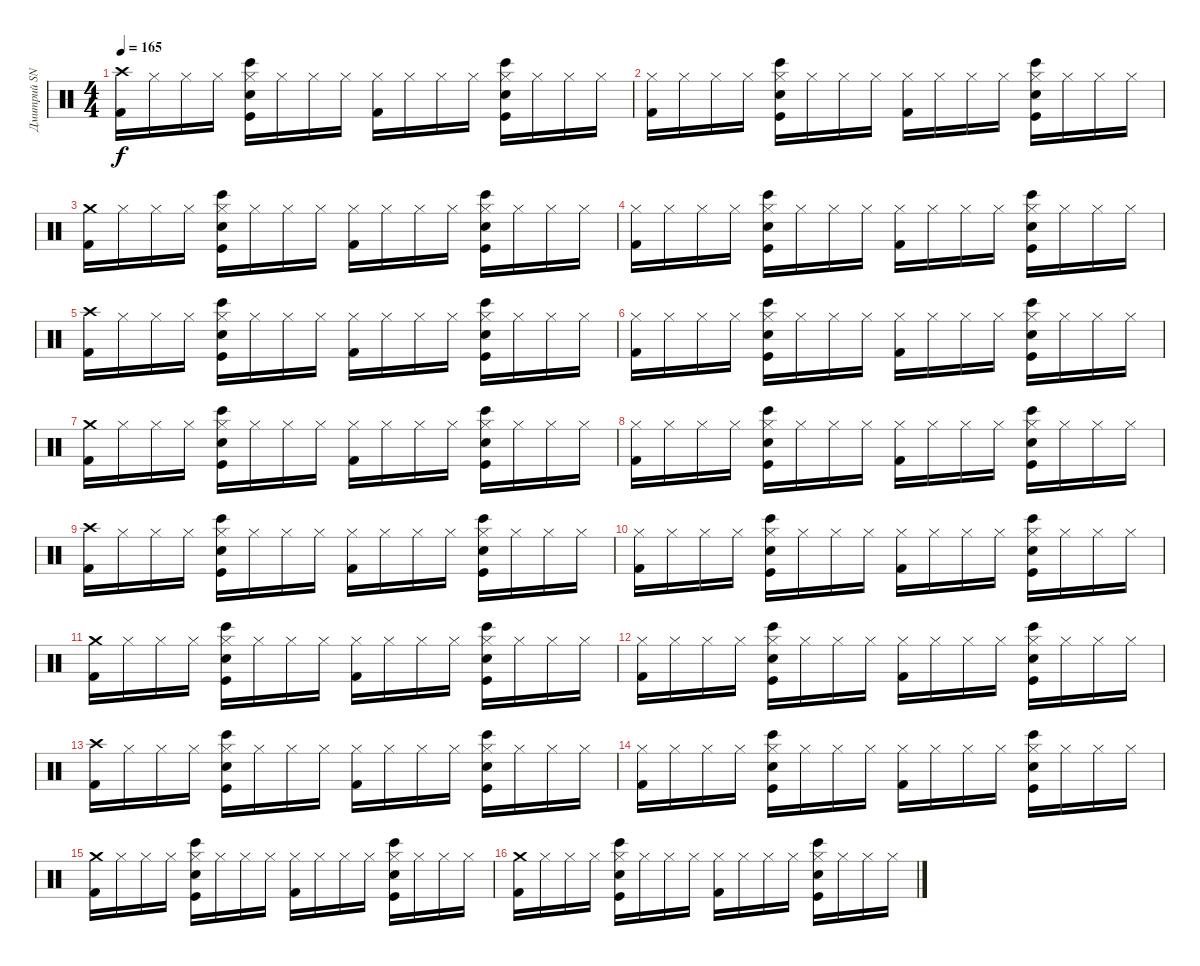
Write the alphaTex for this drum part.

\track ("Дмитрий SNAKE Хакимов" "Дмитрий SN") {instrument percussion}
\staff {score}
\articulation defaults
\ts (4 4)
\tempo 165
\clef neutral
\ks c
("Crash high (hit)" "Kick (hit) 2").16{dy f} "Hi-Hat (closed)".16 "Hi-Hat (closed)".16 "Hi-Hat (closed)".16 ("Hi-Hat (closed)" "Electric Snare (hit)" "Bongo High (hit)" "Kick (hit)").16 "Hi-Hat (closed)".16 "Hi-Hat (closed)".16 "Hi-Hat (closed)".16 ("Hi-Hat (closed)" "Kick (hit) 2").16 "Hi-Hat (closed)".16 "Hi-Hat (closed)".16 "Hi-Hat (closed)".16 ("Hi-Hat (closed)" "Electric Snare (hit)" "Bongo High (hit)" "Kick (hit)").16 "Hi-Hat (closed)".16 "Hi-Hat (closed)".16 "Hi-Hat (closed)".16 |
("Hi-Hat (closed)" "Kick (hit) 2").16 "Hi-Hat (closed)".16 "Hi-Hat (closed)".16 "Hi-Hat (closed)".16 ("Hi-Hat (closed)" "Electric Snare (hit)" "Bongo High (hit)" "Kick (hit)").16 "Hi-Hat (closed)".16 "Hi-Hat (closed)".16 "Hi-Hat (closed)".16 ("Hi-Hat (closed)" "Kick (hit) 2").16 "Hi-Hat (closed)".16 "Hi-Hat (closed)".16 "Hi-Hat (closed)".16 ("Hi-Hat (closed)" "Electric Snare (hit)" "Bongo High (hit)" "Kick (hit)").16 "Hi-Hat (closed)".16 "Hi-Hat (closed)".16 "Hi-Hat (closed)".16 |
("Crash medium (hit)" "Kick (hit) 2").16 "Hi-Hat (closed)".16 "Hi-Hat (closed)".16 "Hi-Hat (closed)".16 ("Hi-Hat (closed)" "Electric Snare (hit)" "Bongo High (hit)" "Kick (hit)").16 "Hi-Hat (closed)".16 "Hi-Hat (closed)".16 "Hi-Hat (closed)".16 ("Hi-Hat (closed)" "Kick (hit) 2").16 "Hi-Hat (closed)".16 "Hi-Hat (closed)".16 "Hi-Hat (closed)".16 ("Hi-Hat (closed)" "Electric Snare (hit)" "Bongo High (hit)" "Kick (hit)").16 "Hi-Hat (closed)".16 "Hi-Hat (closed)".16 "Hi-Hat (closed)".16 |
("Hi-Hat (closed)" "Kick (hit) 2").16 "Hi-Hat (closed)".16 "Hi-Hat (closed)".16 "Hi-Hat (closed)".16 ("Hi-Hat (closed)" "Electric Snare (hit)" "Bongo High (hit)" "Kick (hit)").16 "Hi-Hat (closed)".16 "Hi-Hat (closed)".16 "Hi-Hat (closed)".16 ("Hi-Hat (closed)" "Kick (hit) 2").16 "Hi-Hat (closed)".16 "Hi-Hat (closed)".16 "Hi-Hat (closed)".16 ("Hi-Hat (closed)" "Electric Snare (hit)" "Bongo High (hit)" "Kick (hit)").16 "Hi-Hat (closed)".16 "Hi-Hat (closed)".16 "Hi-Hat (closed)".16 |
("Crash high (hit)" "Kick (hit) 2").16 "Hi-Hat (closed)".16 "Hi-Hat (closed)".16 "Hi-Hat (closed)".16 ("Hi-Hat (closed)" "Electric Snare (hit)" "Bongo High (hit)" "Kick (hit)").16 "Hi-Hat (closed)".16 "Hi-Hat (closed)".16 "Hi-Hat (closed)".16 ("Hi-Hat (closed)" "Kick (hit) 2").16 "Hi-Hat (closed)".16 "Hi-Hat (closed)".16 "Hi-Hat (closed)".16 ("Hi-Hat (closed)" "Electric Snare (hit)" "Bongo High (hit)" "Kick (hit)").16 "Hi-Hat (closed)".16 "Hi-Hat (closed)".16 "Hi-Hat (closed)".16 |
("Hi-Hat (closed)" "Kick (hit) 2").16 "Hi-Hat (closed)".16 "Hi-Hat (closed)".16 "Hi-Hat (closed)".16 ("Hi-Hat (closed)" "Electric Snare (hit)" "Bongo High (hit)" "Kick (hit)").16 "Hi-Hat (closed)".16 "Hi-Hat (closed)".16 "Hi-Hat (closed)".16 ("Hi-Hat (closed)" "Kick (hit) 2").16 "Hi-Hat (closed)".16 "Hi-Hat (closed)".16 "Hi-Hat (closed)".16 ("Hi-Hat (closed)" "Electric Snare (hit)" "Bongo High (hit)" "Kick (hit)").16 "Hi-Hat (closed)".16 "Hi-Hat (closed)".16 "Hi-Hat (closed)".16 |
("Crash medium (hit)" "Kick (hit) 2").16 "Hi-Hat (closed)".16 "Hi-Hat (closed)".16 "Hi-Hat (closed)".16 ("Hi-Hat (closed)" "Electric Snare (hit)" "Bongo High (hit)" "Kick (hit)").16 "Hi-Hat (closed)".16 "Hi-Hat (closed)".16 "Hi-Hat (closed)".16 ("Hi-Hat (closed)" "Kick (hit) 2").16 "Hi-Hat (closed)".16 "Hi-Hat (closed)".16 "Hi-Hat (closed)".16 ("Hi-Hat (closed)" "Electric Snare (hit)" "Bongo High (hit)" "Kick (hit)").16 "Hi-Hat (closed)".16 "Hi-Hat (closed)".16 "Hi-Hat (closed)".16 |
("Hi-Hat (closed)" "Kick (hit) 2").16 "Hi-Hat (closed)".16 "Hi-Hat (closed)".16 "Hi-Hat (closed)".16 ("Hi-Hat (closed)" "Electric Snare (hit)" "Bongo High (hit)" "Kick (hit)").16 "Hi-Hat (closed)".16 "Hi-Hat (closed)".16 "Hi-Hat (closed)".16 ("Hi-Hat (closed)" "Kick (hit) 2").16 "Hi-Hat (closed)".16 "Hi-Hat (closed)".16 "Hi-Hat (closed)".16 ("Hi-Hat (closed)" "Electric Snare (hit)" "Bongo High (hit)" "Kick (hit)").16 "Hi-Hat (closed)".16 "Hi-Hat (closed)".16 "Hi-Hat (closed)".16 |
("Crash high (hit)" "Kick (hit) 2").16 "Hi-Hat (closed)".16 "Hi-Hat (closed)".16 "Hi-Hat (closed)".16 ("Hi-Hat (closed)" "Electric Snare (hit)" "Bongo High (hit)" "Kick (hit)").16 "Hi-Hat (closed)".16 "Hi-Hat (closed)".16 "Hi-Hat (closed)".16 ("Hi-Hat (closed)" "Kick (hit) 2").16 "Hi-Hat (closed)".16 "Hi-Hat (closed)".16 "Hi-Hat (closed)".16 ("Hi-Hat (closed)" "Electric Snare (hit)" "Bongo High (hit)" "Kick (hit)").16 "Hi-Hat (closed)".16 "Hi-Hat (closed)".16 "Hi-Hat (closed)".16 |
("Hi-Hat (closed)" "Kick (hit) 2").16 "Hi-Hat (closed)".16 "Hi-Hat (closed)".16 "Hi-Hat (closed)".16 ("Hi-Hat (closed)" "Electric Snare (hit)" "Bongo High (hit)" "Kick (hit)").16 "Hi-Hat (closed)".16 "Hi-Hat (closed)".16 "Hi-Hat (closed)".16 ("Hi-Hat (closed)" "Kick (hit) 2").16 "Hi-Hat (closed)".16 "Hi-Hat (closed)".16 "Hi-Hat (closed)".16 ("Hi-Hat (closed)" "Electric Snare (hit)" "Bongo High (hit)" "Kick (hit)").16 "Hi-Hat (closed)".16 "Hi-Hat (closed)".16 "Hi-Hat (closed)".16 |
("Crash medium (hit)" "Kick (hit) 2").16 "Hi-Hat (closed)".16 "Hi-Hat (closed)".16 "Hi-Hat (closed)".16 ("Hi-Hat (closed)" "Electric Snare (hit)" "Bongo High (hit)" "Kick (hit)").16 "Hi-Hat (closed)".16 "Hi-Hat (closed)".16 "Hi-Hat (closed)".16 ("Hi-Hat (closed)" "Kick (hit) 2").16 "Hi-Hat (closed)".16 "Hi-Hat (closed)".16 "Hi-Hat (closed)".16 ("Hi-Hat (closed)" "Electric Snare (hit)" "Bongo High (hit)" "Kick (hit)").16 "Hi-Hat (closed)".16 "Hi-Hat (closed)".16 "Hi-Hat (closed)".16 |
("Hi-Hat (closed)" "Kick (hit) 2").16 "Hi-Hat (closed)".16 "Hi-Hat (closed)".16 "Hi-Hat (closed)".16 ("Hi-Hat (closed)" "Electric Snare (hit)" "Bongo High (hit)" "Kick (hit)").16 "Hi-Hat (closed)".16 "Hi-Hat (closed)".16 "Hi-Hat (closed)".16 ("Hi-Hat (closed)" "Kick (hit) 2").16 "Hi-Hat (closed)".16 "Hi-Hat (closed)".16 "Hi-Hat (closed)".16 ("Hi-Hat (closed)" "Electric Snare (hit)" "Bongo High (hit)" "Kick (hit)").16 "Hi-Hat (closed)".16 "Hi-Hat (closed)".16 "Hi-Hat (closed)".16 |
("Crash high (hit)" "Kick (hit) 2").16 "Hi-Hat (closed)".16 "Hi-Hat (closed)".16 "Hi-Hat (closed)".16 ("Hi-Hat (closed)" "Electric Snare (hit)" "Bongo High (hit)" "Kick (hit)").16 "Hi-Hat (closed)".16 "Hi-Hat (closed)".16 "Hi-Hat (closed)".16 ("Hi-Hat (closed)" "Kick (hit) 2").16 "Hi-Hat (closed)".16 "Hi-Hat (closed)".16 "Hi-Hat (closed)".16 ("Hi-Hat (closed)" "Electric Snare (hit)" "Bongo High (hit)" "Kick (hit)").16 "Hi-Hat (closed)".16 "Hi-Hat (closed)".16 "Hi-Hat (closed)".16 |
("Hi-Hat (closed)" "Kick (hit) 2").16 "Hi-Hat (closed)".16 "Hi-Hat (closed)".16 "Hi-Hat (closed)".16 ("Hi-Hat (closed)" "Electric Snare (hit)" "Bongo High (hit)" "Kick (hit)").16 "Hi-Hat (closed)".16 "Hi-Hat (closed)".16 "Hi-Hat (closed)".16 ("Hi-Hat (closed)" "Kick (hit) 2").16 "Hi-Hat (closed)".16 "Hi-Hat (closed)".16 "Hi-Hat (closed)".16 ("Hi-Hat (closed)" "Electric Snare (hit)" "Bongo High (hit)" "Kick (hit)").16 "Hi-Hat (closed)".16 "Hi-Hat (closed)".16 "Hi-Hat (closed)".16 |
("Crash medium (hit)" "Kick (hit) 2").16 "Hi-Hat (closed)".16 "Hi-Hat (closed)".16 "Hi-Hat (closed)".16 ("Hi-Hat (closed)" "Electric Snare (hit)" "Bongo High (hit)" "Kick (hit)").16 "Hi-Hat (closed)".16 "Hi-Hat (closed)".16 "Hi-Hat (closed)".16 ("Hi-Hat (closed)" "Kick (hit) 2").16 "Hi-Hat (closed)".16 "Hi-Hat (closed)".16 "Hi-Hat (closed)".16 ("Hi-Hat (closed)" "Electric Snare (hit)" "Bongo High (hit)" "Kick (hit)").16 "Hi-Hat (closed)".16 "Hi-Hat (closed)".16 "Hi-Hat (closed)".16 |
("Crash medium (hit)" "Kick (hit) 2").16 "Hi-Hat (closed)".16 "Hi-Hat (closed)".16 "Hi-Hat (closed)".16 ("Hi-Hat (closed)" "Electric Snare (hit)" "Bongo High (hit)" "Kick (hit)").16 "Hi-Hat (closed)".16 "Hi-Hat (closed)".16 "Hi-Hat (closed)".16 ("Hi-Hat (closed)" "Kick (hit) 2").16 "Hi-Hat (closed)".16 "Hi-Hat (closed)".16 "Hi-Hat (closed)".16 ("Hi-Hat (closed)" "Electric Snare (hit)" "Bongo High (hit)" "Kick (hit)").16 "Hi-Hat (closed)".16 "Hi-Hat (closed)".16 "Hi-Hat (closed)".16
